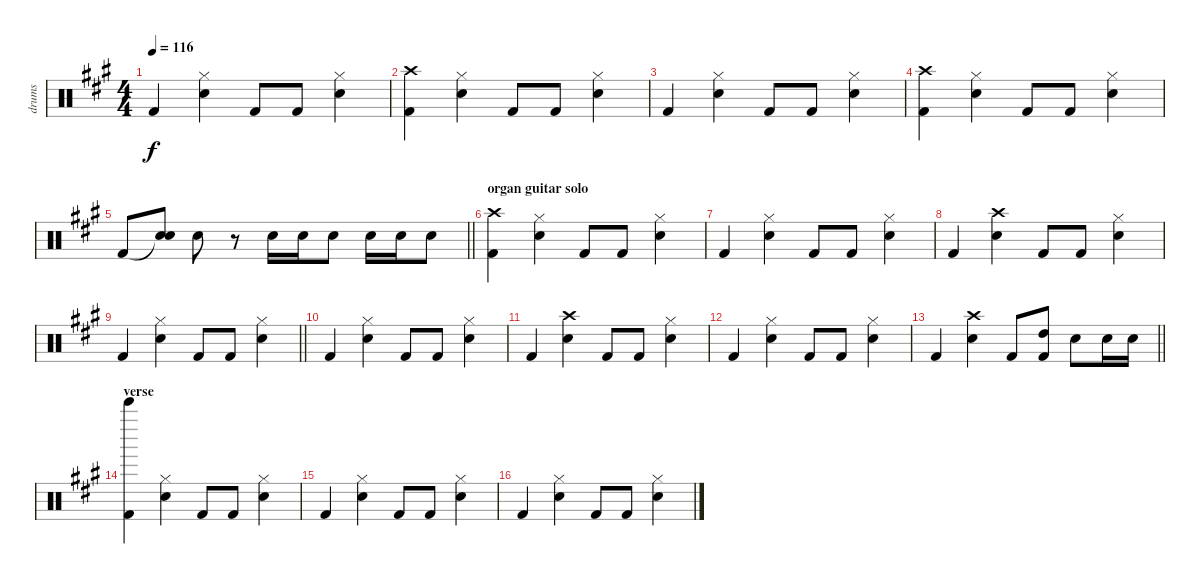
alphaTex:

\track ("drums" "drums") {instrument percussion}
\staff {score}
\articulation defaults
\ts (4 4)
\tempo 116
\clef neutral
\ks a "Kick (hit) 2".4{dy f}
("Hi-Hat (closed)" "Electric Snare (hit)").4 "Kick (hit) 2".8 "Kick (hit) 2".8 ("Hi-Hat (closed)" "Electric Snare (hit)").4 |
("Crash high (hit)" "Kick (hit) 2").4 ("Hi-Hat (closed)" "Electric Snare (hit)").4 "Kick (hit) 2".8 "Kick (hit) 2".8 ("Hi-Hat (closed)" "Electric Snare (hit)").4 |
"Kick (hit) 2".4 ("Hi-Hat (closed)" "Electric Snare (hit)").4 "Kick (hit) 2".8 "Kick (hit) 2".8 ("Hi-Hat (closed)" "Electric Snare (hit)").4 |
("Crash high (hit)" "Kick (hit) 2").4 ("Hi-Hat (closed)" "Electric Snare (hit)").4 "Kick (hit) 2".8 "Kick (hit) 2".8 ("Hi-Hat (closed)" "Electric Snare (hit)").4 |
\barLineRight lightlight "Kick (hit) 2".8
("Snare (hit)"{t} "Electric Snare (hit)").8 "Electric Snare (hit)".8 r.8 "Electric Snare (hit)".16 "Electric Snare (hit)".16 "Electric Snare (hit)".8 "Electric Snare (hit)".16 "Electric Snare (hit)".16 "Electric Snare (hit)".8 |
\section ("" "organ guitar solo")
("Crash high (hit)" "Kick (hit) 2").4 ("Hi-Hat (closed)" "Electric Snare (hit)").4 "Kick (hit) 2".8 "Kick (hit) 2".8 ("Hi-Hat (closed)" "Electric Snare (hit)").4 |
"Kick (hit) 2".4 ("Hi-Hat (closed)" "Electric Snare (hit)").4 "Kick (hit) 2".8 "Kick (hit) 2".8 ("Hi-Hat (closed)" "Electric Snare (hit)").4 |
"Kick (hit) 2".4 ("Electric Snare (hit)" "Crash high (hit)").4 "Kick (hit) 2".8 "Kick (hit) 2".8 ("Hi-Hat (closed)" "Electric Snare (hit)").4 |
\barLineRight lightlight "Kick (hit) 2".4
("Hi-Hat (closed)" "Electric Snare (hit)").4 "Kick (hit) 2".8 "Kick (hit) 2".8 ("Hi-Hat (closed)" "Electric Snare (hit)").4 |
"Kick (hit) 2".4 ("Hi-Hat (closed)" "Electric Snare (hit)").4 "Kick (hit) 2".8 "Kick (hit) 2".8 ("Hi-Hat (closed)" "Electric Snare (hit)").4 |
"Kick (hit) 2".4 ("Electric Snare (hit)" "Crash high (hit)").4 "Kick (hit) 2".8 "Kick (hit) 2".8 ("Hi-Hat (closed)" "Electric Snare (hit)").4 |
"Kick (hit) 2".4 ("Hi-Hat (closed)" "Electric Snare (hit)").4 "Kick (hit) 2".8 "Kick (hit) 2".8 ("Hi-Hat (closed)" "Electric Snare (hit)").4 |
\barLineRight lightlight "Kick (hit) 2".4
("Electric Snare (hit)" "Crash high (hit)").4 "Kick (hit) 2".8 ("Kick (hit) 2" "High Tom (hit)").8 "Electric Snare (hit)".8 "Electric Snare (hit)".16 "Electric Snare (hit)".16 |
\section ("" "verse")
("Bell Tree (hit)" "Kick (hit) 2").4 ("Hi-Hat (closed)" "Electric Snare (hit)").4 "Kick (hit) 2".8 "Kick (hit) 2".8 ("Hi-Hat (closed)" "Electric Snare (hit)").4 |
"Kick (hit) 2".4 ("Hi-Hat (closed)" "Electric Snare (hit)").4 "Kick (hit) 2".8 "Kick (hit) 2".8 ("Hi-Hat (closed)" "Electric Snare (hit)").4 |
"Kick (hit) 2".4 ("Hi-Hat (closed)" "Electric Snare (hit)").4 "Kick (hit) 2".8 "Kick (hit) 2".8 ("Hi-Hat (closed)" "Electric Snare (hit)").4
